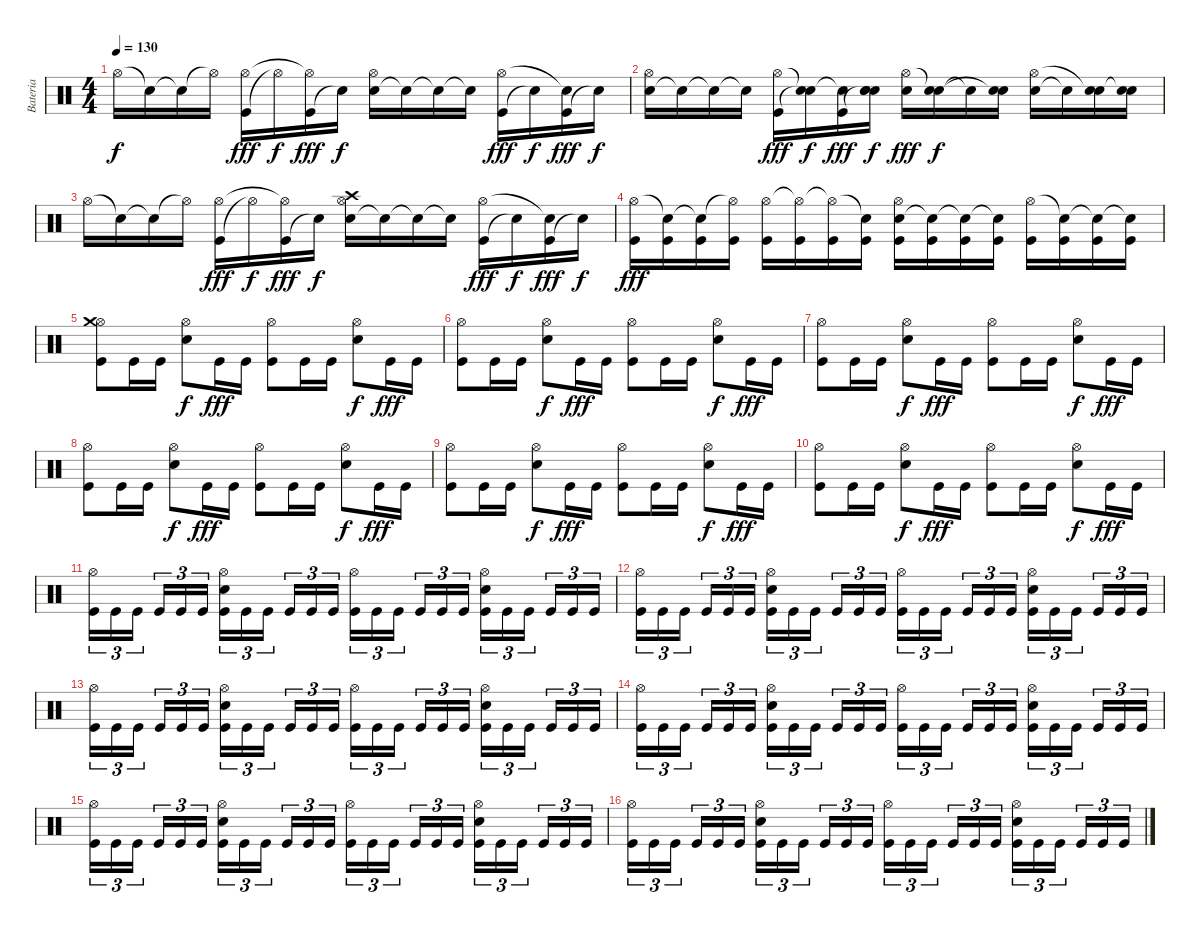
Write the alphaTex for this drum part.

\track ("Bateria" "Bateria") {instrument percussion}
\staff {score}
\articulation defaults
\ts (4 4)
\tempo 130
\clef neutral
\ks c "Hi-Hat (open)".16{dy f} "Snare (hit)"{t}.16 "Snare (hit)"{t}.16 "Hi-Hat (open)"{t}.16
("Kick (hit)" "Hi-Hat (open)").16{dy fff} "Hi-Hat (open)"{t}.16{dy f} ("Kick (hit)" "Hi-Hat (open)"{t}).16{dy fff} "Snare (hit)"{t}.16{dy f} ("Electric Snare (hit)" "Hi-Hat (open)").16 "Snare (hit)"{t}.16 "Snare (hit)"{t}.16 "Snare (hit)"{t}.16 ("Kick (hit)" "Hi-Hat (open)").16{dy fff} "Snare (hit)"{t}.16{dy f} ("Kick (hit)" "Snare (hit)"{t}).16{dy fff} "Snare (hit)"{t}.16{dy f} |
("Electric Snare (hit)" "Hi-Hat (open)").16 "Snare (hit)"{t}.16 "Snare (hit)"{t}.16 "Snare (hit)"{t}.16 ("Kick (hit)" "Hi-Hat (open)").16{dy fff} ("Snare (hit)"{t} "Snare (hit)"{t}).16{dy f} ("Kick (hit)" "Snare (hit)"{t}).16{dy fff} ("Snare (hit)"{t} "Electric Snare (hit)" "Snare (hit)"{t}).16{dy f} ("Electric Snare (hit)" "Hi-Hat (open)").16{dy fff} ("Electric Snare (hit)" "Snare (hit)"{t}).16{dy f} "Snare (hit)"{t}.16 ("Electric Snare (hit)" "Snare (hit)"{t}).16 ("Electric Snare (hit)" "Hi-Hat (open)").16 "Snare (hit)"{t}.16 ("Electric Snare (hit)" "Snare (hit)"{t}).16 ("Electric Snare (hit)" "Snare (hit)"{t}).16 |
"Hi-Hat (open)".16 "Snare (hit)"{t}.16 "Snare (hit)"{t}.16 "Hi-Hat (open)"{t}.16 ("Kick (hit)" "Hi-Hat (open)").16{dy fff} "Hi-Hat (open)"{t}.16{dy f} ("Kick (hit)" "Hi-Hat (open)"{t}).16{dy fff} "Snare (hit)"{t}.16{dy f} ("Electric Snare (hit)" "Crash high (hit)" "Hi-Hat (open)").16 "Snare (hit)"{t}.16 "Snare (hit)"{t}.16 "Snare (hit)"{t}.16 ("Kick (hit)" "Hi-Hat (open)").16{dy fff} "Snare (hit)"{t}.16{dy f} ("Kick (hit)" "Snare (hit)"{t}).16{dy fff} "Snare (hit)"{t}.16{dy f} |
("Kick (hit)" "Hi-Hat (open)").16{dy fff} ("Kick (hit)" "Snare (hit)"{t}).16 ("Kick (hit)" "Snare (hit)"{t}).16 ("Kick (hit)" "Hi-Hat (open)"{t}).16 ("Kick (hit)" "Hi-Hat (open)").16 ("Kick (hit)" "Hi-Hat (open)"{t}).16 ("Kick (hit)" "Hi-Hat (open)"{t}).16 ("Kick (hit)" "Snare (hit)"{t}).16 ("Kick (hit)" "Electric Snare (hit)" "Hi-Hat (open)").16 ("Kick (hit)" "Snare (hit)"{t}).16 ("Kick (hit)" "Snare (hit)"{t}).16 ("Kick (hit)" "Snare (hit)"{t}).16 ("Kick (hit)" "Hi-Hat (open)").16 ("Kick (hit)" "Snare (hit)"{t}).16 ("Kick (hit)" "Snare (hit)"{t}).16 ("Kick (hit)" "Snare (hit)"{t}).16 |
("Kick (hit)" "Hi-Hat (open)" "Crash medium (hit)").8 "Kick (hit)".16 "Kick (hit)".16 ("Electric Snare (hit)" "Hi-Hat (open)").8{dy f} "Kick (hit)".16{dy fff} "Kick (hit)".16 ("Kick (hit)" "Hi-Hat (open)").8 "Kick (hit)".16 "Kick (hit)".16 ("Electric Snare (hit)" "Hi-Hat (open)").8{dy f} "Kick (hit)".16{dy fff} "Kick (hit)".16 |
("Kick (hit)" "Hi-Hat (open)").8 "Kick (hit)".16 "Kick (hit)".16 ("Electric Snare (hit)" "Hi-Hat (open)").8{dy f} "Kick (hit)".16{dy fff} "Kick (hit)".16 ("Kick (hit)" "Hi-Hat (open)").8 "Kick (hit)".16 "Kick (hit)".16 ("Electric Snare (hit)" "Hi-Hat (open)").8{dy f} "Kick (hit)".16{dy fff} "Kick (hit)".16 |
("Kick (hit)" "Hi-Hat (open)").8 "Kick (hit)".16 "Kick (hit)".16 ("Electric Snare (hit)" "Hi-Hat (open)").8{dy f} "Kick (hit)".16{dy fff} "Kick (hit)".16 ("Kick (hit)" "Hi-Hat (open)").8 "Kick (hit)".16 "Kick (hit)".16 ("Electric Snare (hit)" "Hi-Hat (open)").8{dy f} "Kick (hit)".16{dy fff} "Kick (hit)".16 |
("Kick (hit)" "Hi-Hat (open)").8 "Kick (hit)".16 "Kick (hit)".16 ("Electric Snare (hit)" "Hi-Hat (open)").8{dy f} "Kick (hit)".16{dy fff} "Kick (hit)".16 ("Kick (hit)" "Hi-Hat (open)").8 "Kick (hit)".16 "Kick (hit)".16 ("Electric Snare (hit)" "Hi-Hat (open)").8{dy f} "Kick (hit)".16{dy fff} "Kick (hit)".16 |
("Kick (hit)" "Hi-Hat (open)").8 "Kick (hit)".16 "Kick (hit)".16 ("Electric Snare (hit)" "Hi-Hat (open)").8{dy f} "Kick (hit)".16{dy fff} "Kick (hit)".16 ("Kick (hit)" "Hi-Hat (open)").8 "Kick (hit)".16 "Kick (hit)".16 ("Electric Snare (hit)" "Hi-Hat (open)").8{dy f} "Kick (hit)".16{dy fff} "Kick (hit)".16 |
("Kick (hit)" "Hi-Hat (open)").8 "Kick (hit)".16 "Kick (hit)".16 ("Electric Snare (hit)" "Hi-Hat (open)").8{dy f} "Kick (hit)".16{dy fff} "Kick (hit)".16 ("Kick (hit)" "Hi-Hat (open)").8 "Kick (hit)".16 "Kick (hit)".16 ("Electric Snare (hit)" "Hi-Hat (open)").8{dy f} "Kick (hit)".16{dy fff} "Kick (hit)".16 |
("Kick (hit)" "Hi-Hat (open)").16{tu (3 2)} "Kick (hit)".16{tu (3 2)} "Kick (hit)".16{tu (3 2)} "Kick (hit)".16{tu (3 2)} "Kick (hit)".16{tu (3 2)} "Kick (hit)".16{tu (3 2)} ("Kick (hit)" "Electric Snare (hit)" "Hi-Hat (open)").16{tu (3 2)} "Kick (hit)".16{tu (3 2)} "Kick (hit)".16{tu (3 2)} "Kick (hit)".16{tu (3 2)} "Kick (hit)".16{tu (3 2)} "Kick (hit)".16{tu (3 2)} ("Kick (hit)" "Hi-Hat (open)").16{tu (3 2)} "Kick (hit)".16{tu (3 2)} "Kick (hit)".16{tu (3 2)} "Kick (hit)".16{tu (3 2)} "Kick (hit)".16{tu (3 2)} "Kick (hit)".16{tu (3 2)} ("Kick (hit)" "Electric Snare (hit)" "Hi-Hat (open)").16{tu (3 2)} "Kick (hit)".16{tu (3 2)} "Kick (hit)".16{tu (3 2)} "Kick (hit)".16{tu (3 2)} "Kick (hit)".16{tu (3 2)} "Kick (hit)".16{tu (3 2)} |
("Kick (hit)" "Hi-Hat (open)").16{tu (3 2)} "Kick (hit)".16{tu (3 2)} "Kick (hit)".16{tu (3 2)} "Kick (hit)".16{tu (3 2)} "Kick (hit)".16{tu (3 2)} "Kick (hit)".16{tu (3 2)} ("Kick (hit)" "Electric Snare (hit)" "Hi-Hat (open)").16{tu (3 2)} "Kick (hit)".16{tu (3 2)} "Kick (hit)".16{tu (3 2)} "Kick (hit)".16{tu (3 2)} "Kick (hit)".16{tu (3 2)} "Kick (hit)".16{tu (3 2)} ("Kick (hit)" "Hi-Hat (open)").16{tu (3 2)} "Kick (hit)".16{tu (3 2)} "Kick (hit)".16{tu (3 2)} "Kick (hit)".16{tu (3 2)} "Kick (hit)".16{tu (3 2)} "Kick (hit)".16{tu (3 2)} ("Kick (hit)" "Electric Snare (hit)" "Hi-Hat (open)").16{tu (3 2)} "Kick (hit)".16{tu (3 2)} "Kick (hit)".16{tu (3 2)} "Kick (hit)".16{tu (3 2)} "Kick (hit)".16{tu (3 2)} "Kick (hit)".16{tu (3 2)} |
("Kick (hit)" "Hi-Hat (open)").16{tu (3 2)} "Kick (hit)".16{tu (3 2)} "Kick (hit)".16{tu (3 2)} "Kick (hit)".16{tu (3 2)} "Kick (hit)".16{tu (3 2)} "Kick (hit)".16{tu (3 2)} ("Kick (hit)" "Electric Snare (hit)" "Hi-Hat (open)").16{tu (3 2)} "Kick (hit)".16{tu (3 2)} "Kick (hit)".16{tu (3 2)} "Kick (hit)".16{tu (3 2)} "Kick (hit)".16{tu (3 2)} "Kick (hit)".16{tu (3 2)} ("Kick (hit)" "Hi-Hat (open)").16{tu (3 2)} "Kick (hit)".16{tu (3 2)} "Kick (hit)".16{tu (3 2)} "Kick (hit)".16{tu (3 2)} "Kick (hit)".16{tu (3 2)} "Kick (hit)".16{tu (3 2)} ("Kick (hit)" "Electric Snare (hit)" "Hi-Hat (open)").16{tu (3 2)} "Kick (hit)".16{tu (3 2)} "Kick (hit)".16{tu (3 2)} "Kick (hit)".16{tu (3 2)} "Kick (hit)".16{tu (3 2)} "Kick (hit)".16{tu (3 2)} |
("Kick (hit)" "Hi-Hat (open)").16{tu (3 2)} "Kick (hit)".16{tu (3 2)} "Kick (hit)".16{tu (3 2)} "Kick (hit)".16{tu (3 2)} "Kick (hit)".16{tu (3 2)} "Kick (hit)".16{tu (3 2)} ("Kick (hit)" "Electric Snare (hit)" "Hi-Hat (open)").16{tu (3 2)} "Kick (hit)".16{tu (3 2)} "Kick (hit)".16{tu (3 2)} "Kick (hit)".16{tu (3 2)} "Kick (hit)".16{tu (3 2)} "Kick (hit)".16{tu (3 2)} ("Kick (hit)" "Hi-Hat (open)").16{tu (3 2)} "Kick (hit)".16{tu (3 2)} "Kick (hit)".16{tu (3 2)} "Kick (hit)".16{tu (3 2)} "Kick (hit)".16{tu (3 2)} "Kick (hit)".16{tu (3 2)} ("Kick (hit)" "Electric Snare (hit)" "Hi-Hat (open)").16{tu (3 2)} "Kick (hit)".16{tu (3 2)} "Kick (hit)".16{tu (3 2)} "Kick (hit)".16{tu (3 2)} "Kick (hit)".16{tu (3 2)} "Kick (hit)".16{tu (3 2)} |
("Kick (hit)" "Hi-Hat (open)").16{tu (3 2)} "Kick (hit)".16{tu (3 2)} "Kick (hit)".16{tu (3 2)} "Kick (hit)".16{tu (3 2)} "Kick (hit)".16{tu (3 2)} "Kick (hit)".16{tu (3 2)} ("Kick (hit)" "Electric Snare (hit)" "Hi-Hat (open)").16{tu (3 2)} "Kick (hit)".16{tu (3 2)} "Kick (hit)".16{tu (3 2)} "Kick (hit)".16{tu (3 2)} "Kick (hit)".16{tu (3 2)} "Kick (hit)".16{tu (3 2)} ("Kick (hit)" "Hi-Hat (open)").16{tu (3 2)} "Kick (hit)".16{tu (3 2)} "Kick (hit)".16{tu (3 2)} "Kick (hit)".16{tu (3 2)} "Kick (hit)".16{tu (3 2)} "Kick (hit)".16{tu (3 2)} ("Kick (hit)" "Electric Snare (hit)" "Hi-Hat (open)").16{tu (3 2)} "Kick (hit)".16{tu (3 2)} "Kick (hit)".16{tu (3 2)} "Kick (hit)".16{tu (3 2)} "Kick (hit)".16{tu (3 2)} "Kick (hit)".16{tu (3 2)} |
("Kick (hit)" "Hi-Hat (open)").16{tu (3 2)} "Kick (hit)".16{tu (3 2)} "Kick (hit)".16{tu (3 2)} "Kick (hit)".16{tu (3 2)} "Kick (hit)".16{tu (3 2)} "Kick (hit)".16{tu (3 2)} ("Kick (hit)" "Electric Snare (hit)" "Hi-Hat (open)").16{tu (3 2)} "Kick (hit)".16{tu (3 2)} "Kick (hit)".16{tu (3 2)} "Kick (hit)".16{tu (3 2)} "Kick (hit)".16{tu (3 2)} "Kick (hit)".16{tu (3 2)} ("Kick (hit)" "Hi-Hat (open)").16{tu (3 2)} "Kick (hit)".16{tu (3 2)} "Kick (hit)".16{tu (3 2)} "Kick (hit)".16{tu (3 2)} "Kick (hit)".16{tu (3 2)} "Kick (hit)".16{tu (3 2)} ("Kick (hit)" "Electric Snare (hit)" "Hi-Hat (open)").16{tu (3 2)} "Kick (hit)".16{tu (3 2)} "Kick (hit)".16{tu (3 2)} "Kick (hit)".16{tu (3 2)} "Kick (hit)".16{tu (3 2)} "Kick (hit)".16{tu (3 2)}
